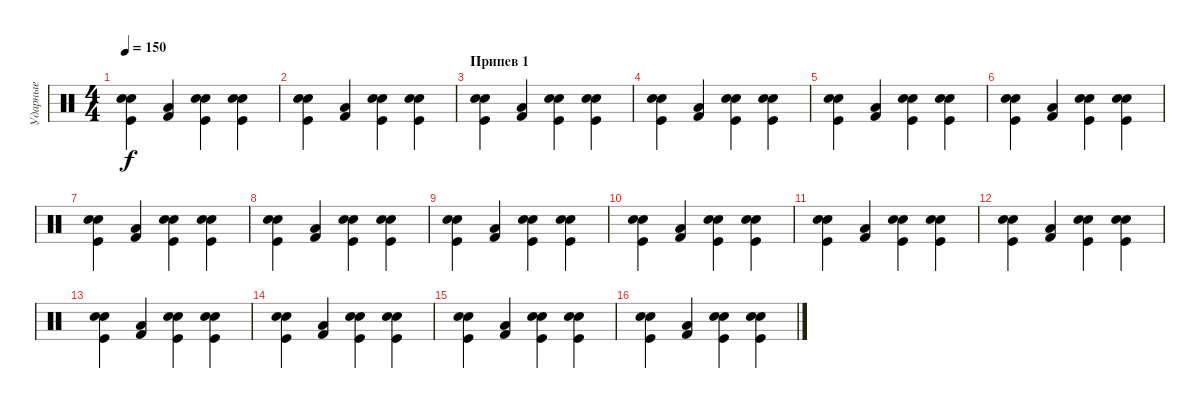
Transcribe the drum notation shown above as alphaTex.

\track ("Ударные" "Ударные") {instrument percussion}
\staff {score}
\articulation defaults
\ts (4 4)
\tempo 150
\clef neutral
\ks c
("Electric Snare (hit)" "Kick (hit)" "Snare (hit) 2").4{dy f} ("Kick (hit) 2" "Low Tom (hit)").4 ("Electric Snare (hit)" "Kick (hit)" "Snare (hit) 2").4 ("Electric Snare (hit)" "Kick (hit)" "Snare (hit) 2").4 |
("Electric Snare (hit)" "Kick (hit)" "Snare (hit) 2").4 ("Kick (hit) 2" "Low Tom (hit)").4 ("Electric Snare (hit)" "Kick (hit)" "Snare (hit) 2").4 ("Electric Snare (hit)" "Kick (hit)" "Snare (hit) 2").4 |
\section ("" "Припев 1")
("Electric Snare (hit)" "Kick (hit)" "Snare (hit) 2").4 ("Kick (hit) 2" "Low Tom (hit)").4 ("Electric Snare (hit)" "Kick (hit)" "Snare (hit) 2").4 ("Electric Snare (hit)" "Kick (hit)" "Snare (hit) 2").4 |
("Electric Snare (hit)" "Kick (hit)" "Snare (hit) 2").4 ("Kick (hit) 2" "Low Tom (hit)").4 ("Electric Snare (hit)" "Kick (hit)" "Snare (hit) 2").4 ("Electric Snare (hit)" "Kick (hit)" "Snare (hit) 2").4 |
("Electric Snare (hit)" "Kick (hit)" "Snare (hit) 2").4 ("Kick (hit) 2" "Low Tom (hit)").4 ("Electric Snare (hit)" "Kick (hit)" "Snare (hit) 2").4 ("Electric Snare (hit)" "Kick (hit)" "Snare (hit) 2").4 |
("Electric Snare (hit)" "Kick (hit)" "Snare (hit) 2").4 ("Kick (hit) 2" "Low Tom (hit)").4 ("Electric Snare (hit)" "Kick (hit)" "Snare (hit) 2").4 ("Electric Snare (hit)" "Kick (hit)" "Snare (hit) 2").4 |
("Electric Snare (hit)" "Kick (hit)" "Snare (hit) 2").4 ("Kick (hit) 2" "Low Tom (hit)").4 ("Electric Snare (hit)" "Kick (hit)" "Snare (hit) 2").4 ("Electric Snare (hit)" "Kick (hit)" "Snare (hit) 2").4 |
("Electric Snare (hit)" "Kick (hit)" "Snare (hit) 2").4 ("Kick (hit) 2" "Low Tom (hit)").4 ("Electric Snare (hit)" "Kick (hit)" "Snare (hit) 2").4 ("Electric Snare (hit)" "Kick (hit)" "Snare (hit) 2").4 |
("Electric Snare (hit)" "Kick (hit)" "Snare (hit) 2").4 ("Kick (hit) 2" "Low Tom (hit)").4 ("Electric Snare (hit)" "Kick (hit)" "Snare (hit) 2").4 ("Electric Snare (hit)" "Kick (hit)" "Snare (hit) 2").4 |
("Electric Snare (hit)" "Kick (hit)" "Snare (hit) 2").4 ("Kick (hit) 2" "Low Tom (hit)").4 ("Electric Snare (hit)" "Kick (hit)" "Snare (hit) 2").4 ("Electric Snare (hit)" "Kick (hit)" "Snare (hit) 2").4 |
("Electric Snare (hit)" "Kick (hit)" "Snare (hit) 2").4 ("Kick (hit) 2" "Low Tom (hit)").4 ("Electric Snare (hit)" "Kick (hit)" "Snare (hit) 2").4 ("Electric Snare (hit)" "Kick (hit)" "Snare (hit) 2").4 |
("Electric Snare (hit)" "Kick (hit)" "Snare (hit) 2").4 ("Kick (hit) 2" "Low Tom (hit)").4 ("Electric Snare (hit)" "Kick (hit)" "Snare (hit) 2").4 ("Electric Snare (hit)" "Kick (hit)" "Snare (hit) 2").4 |
("Electric Snare (hit)" "Kick (hit)" "Snare (hit) 2").4 ("Kick (hit) 2" "Low Tom (hit)").4 ("Electric Snare (hit)" "Kick (hit)" "Snare (hit) 2").4 ("Electric Snare (hit)" "Kick (hit)" "Snare (hit) 2").4 |
("Electric Snare (hit)" "Kick (hit)" "Snare (hit) 2").4 ("Kick (hit) 2" "Low Tom (hit)").4 ("Electric Snare (hit)" "Kick (hit)" "Snare (hit) 2").4 ("Electric Snare (hit)" "Kick (hit)" "Snare (hit) 2").4 |
("Electric Snare (hit)" "Kick (hit)" "Snare (hit) 2").4 ("Kick (hit) 2" "Low Tom (hit)").4 ("Electric Snare (hit)" "Kick (hit)" "Snare (hit) 2").4 ("Electric Snare (hit)" "Kick (hit)" "Snare (hit) 2").4 |
("Electric Snare (hit)" "Kick (hit)" "Snare (hit) 2").4 ("Kick (hit) 2" "Low Tom (hit)").4 ("Electric Snare (hit)" "Kick (hit)" "Snare (hit) 2").4 ("Electric Snare (hit)" "Kick (hit)" "Snare (hit) 2").4
